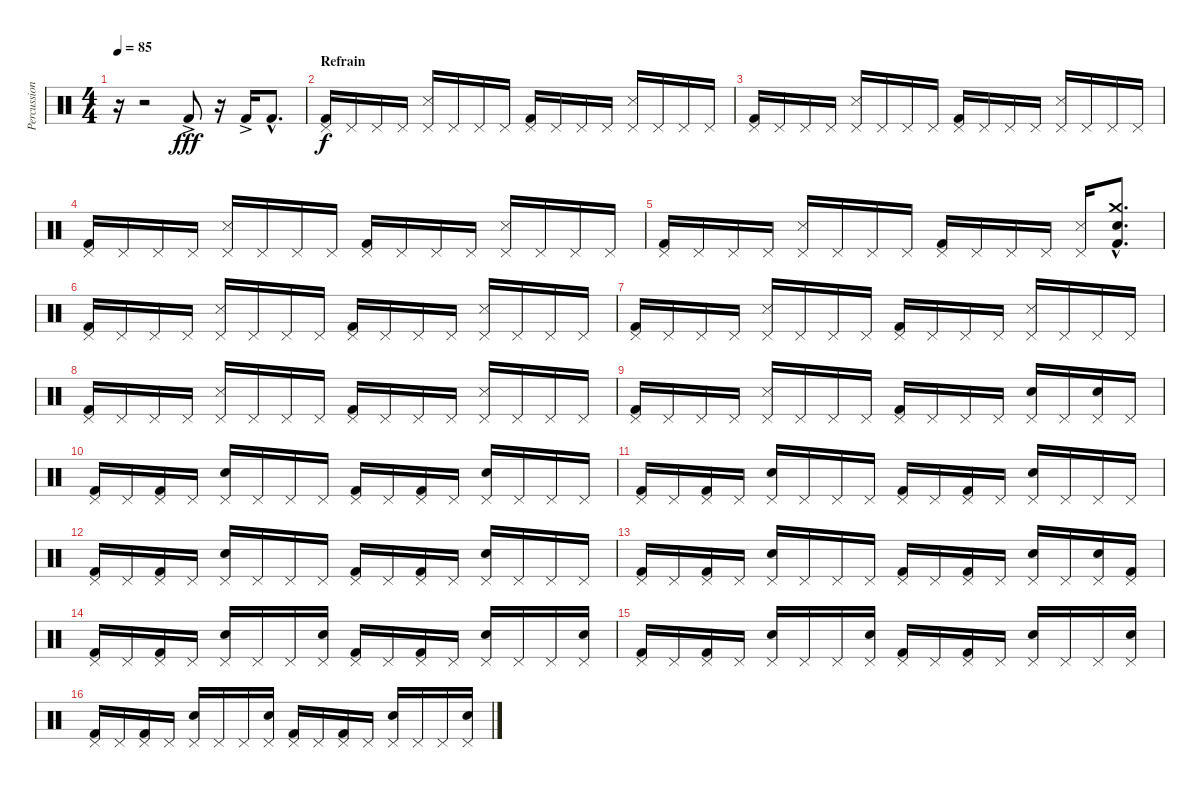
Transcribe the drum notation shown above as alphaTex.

\track ("Percussions" "Percussion") {instrument percussion}
\staff {score}
\articulation defaults
\ts (4 4)
\tempo 85
\clef neutral
\ks c
r.16{dy fff} r.2 "Kick (hit) 2"{ac}.8 r.16 "Kick (hit) 2"{ac}.16 "Kick (hit) 2"{hac}.8{d} |
\section ("" "Refrain")
("Pedal Hi-Hat (hit)" "Kick (hit) 2").16{dy f} "Pedal Hi-Hat (hit)".16 "Pedal Hi-Hat (hit)".16 "Pedal Hi-Hat (hit)".16 ("Pedal Hi-Hat (hit)" "Snare (side stick) 3").16 "Pedal Hi-Hat (hit)".16 "Pedal Hi-Hat (hit)".16 "Pedal Hi-Hat (hit)".16 ("Pedal Hi-Hat (hit)" "Kick (hit) 2").16 "Pedal Hi-Hat (hit)".16 "Pedal Hi-Hat (hit)".16 "Pedal Hi-Hat (hit)".16 ("Pedal Hi-Hat (hit)" "Snare (side stick) 3").16 "Pedal Hi-Hat (hit)".16 "Pedal Hi-Hat (hit)".16 "Pedal Hi-Hat (hit)".16 |
("Pedal Hi-Hat (hit)" "Kick (hit) 2").16 "Pedal Hi-Hat (hit)".16 "Pedal Hi-Hat (hit)".16 "Pedal Hi-Hat (hit)".16 ("Pedal Hi-Hat (hit)" "Snare (side stick) 3").16 "Pedal Hi-Hat (hit)".16 "Pedal Hi-Hat (hit)".16 "Pedal Hi-Hat (hit)".16 ("Pedal Hi-Hat (hit)" "Kick (hit) 2").16 "Pedal Hi-Hat (hit)".16 "Pedal Hi-Hat (hit)".16 "Pedal Hi-Hat (hit)".16 ("Pedal Hi-Hat (hit)" "Snare (side stick) 3").16 "Pedal Hi-Hat (hit)".16 "Pedal Hi-Hat (hit)".16 "Pedal Hi-Hat (hit)".16 |
("Pedal Hi-Hat (hit)" "Kick (hit) 2").16 "Pedal Hi-Hat (hit)".16 "Pedal Hi-Hat (hit)".16 "Pedal Hi-Hat (hit)".16 ("Pedal Hi-Hat (hit)" "Snare (side stick) 3").16 "Pedal Hi-Hat (hit)".16 "Pedal Hi-Hat (hit)".16 "Pedal Hi-Hat (hit)".16 ("Pedal Hi-Hat (hit)" "Kick (hit) 2").16 "Pedal Hi-Hat (hit)".16 "Pedal Hi-Hat (hit)".16 "Pedal Hi-Hat (hit)".16 ("Pedal Hi-Hat (hit)" "Snare (side stick) 3").16 "Pedal Hi-Hat (hit)".16 "Pedal Hi-Hat (hit)".16 "Pedal Hi-Hat (hit)".16 |
("Pedal Hi-Hat (hit)" "Kick (hit) 2").16 "Pedal Hi-Hat (hit)".16 "Pedal Hi-Hat (hit)".16 "Pedal Hi-Hat (hit)".16 ("Pedal Hi-Hat (hit)" "Snare (side stick) 3").16 "Pedal Hi-Hat (hit)".16 "Pedal Hi-Hat (hit)".16 "Pedal Hi-Hat (hit)".16 ("Pedal Hi-Hat (hit)" "Kick (hit) 2").16 "Pedal Hi-Hat (hit)".16 "Pedal Hi-Hat (hit)".16 "Pedal Hi-Hat (hit)".16 ("Pedal Hi-Hat (hit)" "Snare (side stick) 3").16 ("Crash medium (hit)"{hac} "Snare (hit) 2"{hac} "Kick (hit) 2"{hac}).8{d} |
("Pedal Hi-Hat (hit)" "Kick (hit) 2").16 "Pedal Hi-Hat (hit)".16 "Pedal Hi-Hat (hit)".16 "Pedal Hi-Hat (hit)".16 ("Pedal Hi-Hat (hit)" "Snare (side stick) 3").16 "Pedal Hi-Hat (hit)".16 "Pedal Hi-Hat (hit)".16 "Pedal Hi-Hat (hit)".16 ("Pedal Hi-Hat (hit)" "Kick (hit) 2").16 "Pedal Hi-Hat (hit)".16 "Pedal Hi-Hat (hit)".16 "Pedal Hi-Hat (hit)".16 ("Pedal Hi-Hat (hit)" "Snare (side stick) 3").16 "Pedal Hi-Hat (hit)".16 "Pedal Hi-Hat (hit)".16 "Pedal Hi-Hat (hit)".16 |
("Pedal Hi-Hat (hit)" "Kick (hit) 2").16 "Pedal Hi-Hat (hit)".16 "Pedal Hi-Hat (hit)".16 "Pedal Hi-Hat (hit)".16 ("Pedal Hi-Hat (hit)" "Snare (side stick) 3").16 "Pedal Hi-Hat (hit)".16 "Pedal Hi-Hat (hit)".16 "Pedal Hi-Hat (hit)".16 ("Pedal Hi-Hat (hit)" "Kick (hit) 2").16 "Pedal Hi-Hat (hit)".16 "Pedal Hi-Hat (hit)".16 "Pedal Hi-Hat (hit)".16 ("Pedal Hi-Hat (hit)" "Snare (side stick) 3").16 "Pedal Hi-Hat (hit)".16 "Pedal Hi-Hat (hit)".16 "Pedal Hi-Hat (hit)".16 |
("Pedal Hi-Hat (hit)" "Kick (hit) 2").16 "Pedal Hi-Hat (hit)".16 "Pedal Hi-Hat (hit)".16 "Pedal Hi-Hat (hit)".16 ("Pedal Hi-Hat (hit)" "Snare (side stick) 3").16 "Pedal Hi-Hat (hit)".16 "Pedal Hi-Hat (hit)".16 "Pedal Hi-Hat (hit)".16 ("Pedal Hi-Hat (hit)" "Kick (hit) 2").16 "Pedal Hi-Hat (hit)".16 "Pedal Hi-Hat (hit)".16 "Pedal Hi-Hat (hit)".16 ("Pedal Hi-Hat (hit)" "Snare (side stick) 3").16 "Pedal Hi-Hat (hit)".16 "Pedal Hi-Hat (hit)".16 "Pedal Hi-Hat (hit)".16 |
("Pedal Hi-Hat (hit)" "Kick (hit) 2").16 "Pedal Hi-Hat (hit)".16 "Pedal Hi-Hat (hit)".16 "Pedal Hi-Hat (hit)".16 ("Pedal Hi-Hat (hit)" "Snare (side stick) 3").16 "Pedal Hi-Hat (hit)".16 "Pedal Hi-Hat (hit)".16 "Pedal Hi-Hat (hit)".16 ("Pedal Hi-Hat (hit)" "Kick (hit) 2").16 "Pedal Hi-Hat (hit)".16 "Pedal Hi-Hat (hit)".16 "Pedal Hi-Hat (hit)".16 ("Pedal Hi-Hat (hit)" "Snare (hit) 2").16 "Pedal Hi-Hat (hit)".16 ("Pedal Hi-Hat (hit)" "Snare (hit) 2").16 "Pedal Hi-Hat (hit)".16 |
("Pedal Hi-Hat (hit)" "Kick (hit) 2").16 "Pedal Hi-Hat (hit)".16 ("Pedal Hi-Hat (hit)" "Kick (hit) 2").16 "Pedal Hi-Hat (hit)".16 ("Pedal Hi-Hat (hit)" "Snare (hit) 2").16 "Pedal Hi-Hat (hit)".16 "Pedal Hi-Hat (hit)".16 "Pedal Hi-Hat (hit)".16 ("Pedal Hi-Hat (hit)" "Kick (hit) 2").16 "Pedal Hi-Hat (hit)".16 ("Pedal Hi-Hat (hit)" "Kick (hit) 2").16 "Pedal Hi-Hat (hit)".16 ("Pedal Hi-Hat (hit)" "Snare (hit) 2").16 "Pedal Hi-Hat (hit)".16 "Pedal Hi-Hat (hit)".16 "Pedal Hi-Hat (hit)".16 |
("Pedal Hi-Hat (hit)" "Kick (hit) 2").16 "Pedal Hi-Hat (hit)".16 ("Pedal Hi-Hat (hit)" "Kick (hit) 2").16 "Pedal Hi-Hat (hit)".16 ("Pedal Hi-Hat (hit)" "Snare (hit) 2").16 "Pedal Hi-Hat (hit)".16 "Pedal Hi-Hat (hit)".16 "Pedal Hi-Hat (hit)".16 ("Pedal Hi-Hat (hit)" "Kick (hit) 2").16 "Pedal Hi-Hat (hit)".16 ("Pedal Hi-Hat (hit)" "Kick (hit) 2").16 "Pedal Hi-Hat (hit)".16 ("Pedal Hi-Hat (hit)" "Snare (hit) 2").16 "Pedal Hi-Hat (hit)".16 "Pedal Hi-Hat (hit)".16 "Pedal Hi-Hat (hit)".16 |
("Pedal Hi-Hat (hit)" "Kick (hit) 2").16 "Pedal Hi-Hat (hit)".16 ("Pedal Hi-Hat (hit)" "Kick (hit) 2").16 "Pedal Hi-Hat (hit)".16 ("Pedal Hi-Hat (hit)" "Snare (hit) 2").16 "Pedal Hi-Hat (hit)".16 "Pedal Hi-Hat (hit)".16 "Pedal Hi-Hat (hit)".16 ("Pedal Hi-Hat (hit)" "Kick (hit) 2").16 "Pedal Hi-Hat (hit)".16 ("Pedal Hi-Hat (hit)" "Kick (hit) 2").16 "Pedal Hi-Hat (hit)".16 ("Pedal Hi-Hat (hit)" "Snare (hit) 2").16 "Pedal Hi-Hat (hit)".16 "Pedal Hi-Hat (hit)".16 "Pedal Hi-Hat (hit)".16 |
("Pedal Hi-Hat (hit)" "Kick (hit) 2").16 "Pedal Hi-Hat (hit)".16 ("Pedal Hi-Hat (hit)" "Kick (hit) 2").16 "Pedal Hi-Hat (hit)".16 ("Pedal Hi-Hat (hit)" "Snare (hit) 2").16 "Pedal Hi-Hat (hit)".16 "Pedal Hi-Hat (hit)".16 "Pedal Hi-Hat (hit)".16 ("Pedal Hi-Hat (hit)" "Kick (hit) 2").16 "Pedal Hi-Hat (hit)".16 ("Pedal Hi-Hat (hit)" "Kick (hit) 2").16 "Pedal Hi-Hat (hit)".16 ("Pedal Hi-Hat (hit)" "Snare (hit) 2").16 "Pedal Hi-Hat (hit)".16 ("Pedal Hi-Hat (hit)" "Snare (hit) 2").16 ("Pedal Hi-Hat (hit)" "Kick (hit) 2").16 |
("Pedal Hi-Hat (hit)" "Kick (hit) 2").16 "Pedal Hi-Hat (hit)".16 ("Pedal Hi-Hat (hit)" "Kick (hit) 2").16 "Pedal Hi-Hat (hit)".16 ("Pedal Hi-Hat (hit)" "Snare (hit) 2").16 "Pedal Hi-Hat (hit)".16 "Pedal Hi-Hat (hit)".16 ("Pedal Hi-Hat (hit)" "Snare (hit) 2").16 ("Pedal Hi-Hat (hit)" "Kick (hit) 2").16 "Pedal Hi-Hat (hit)".16 ("Pedal Hi-Hat (hit)" "Kick (hit) 2").16 "Pedal Hi-Hat (hit)".16 ("Pedal Hi-Hat (hit)" "Snare (hit) 2").16 "Pedal Hi-Hat (hit)".16 "Pedal Hi-Hat (hit)".16 ("Pedal Hi-Hat (hit)" "Snare (hit) 2").16 |
("Pedal Hi-Hat (hit)" "Kick (hit) 2").16 "Pedal Hi-Hat (hit)".16 ("Pedal Hi-Hat (hit)" "Kick (hit) 2").16 "Pedal Hi-Hat (hit)".16 ("Pedal Hi-Hat (hit)" "Snare (hit) 2").16 "Pedal Hi-Hat (hit)".16 "Pedal Hi-Hat (hit)".16 ("Pedal Hi-Hat (hit)" "Snare (hit) 2").16 ("Pedal Hi-Hat (hit)" "Kick (hit) 2").16 "Pedal Hi-Hat (hit)".16 ("Pedal Hi-Hat (hit)" "Kick (hit) 2").16 "Pedal Hi-Hat (hit)".16 ("Pedal Hi-Hat (hit)" "Snare (hit) 2").16 "Pedal Hi-Hat (hit)".16 "Pedal Hi-Hat (hit)".16 ("Pedal Hi-Hat (hit)" "Snare (hit) 2").16 |
("Pedal Hi-Hat (hit)" "Kick (hit) 2").16 "Pedal Hi-Hat (hit)".16 ("Pedal Hi-Hat (hit)" "Kick (hit) 2").16 "Pedal Hi-Hat (hit)".16 ("Pedal Hi-Hat (hit)" "Snare (hit) 2").16 "Pedal Hi-Hat (hit)".16 "Pedal Hi-Hat (hit)".16 ("Pedal Hi-Hat (hit)" "Snare (hit) 2").16 ("Pedal Hi-Hat (hit)" "Kick (hit) 2").16 "Pedal Hi-Hat (hit)".16 ("Pedal Hi-Hat (hit)" "Kick (hit) 2").16 "Pedal Hi-Hat (hit)".16 ("Pedal Hi-Hat (hit)" "Snare (hit) 2").16 "Pedal Hi-Hat (hit)".16 "Pedal Hi-Hat (hit)".16 ("Pedal Hi-Hat (hit)" "Snare (hit) 2").16
